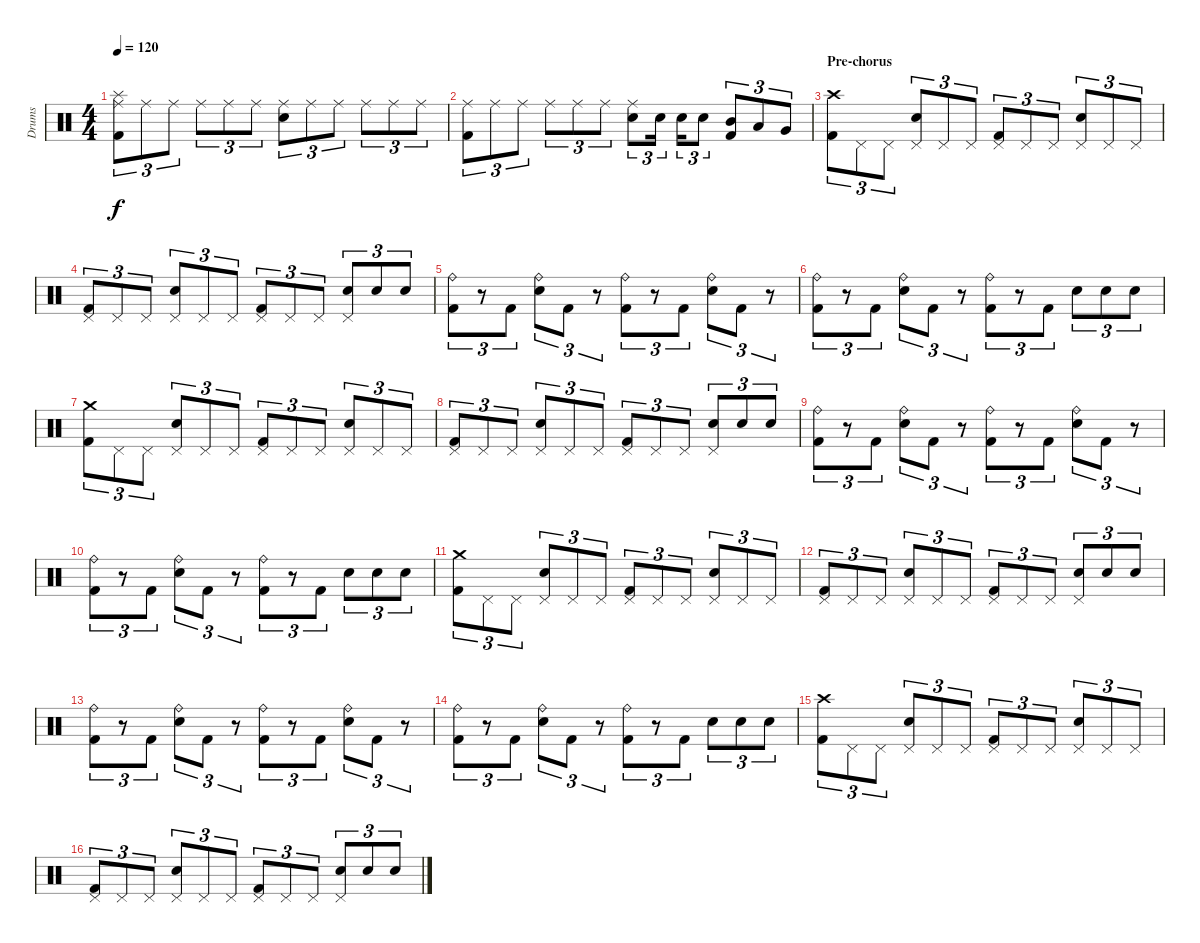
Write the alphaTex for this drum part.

\track ("Drums" "Drums") {instrument percussion}
\staff {score}
\articulation defaults
\ts (4 4)
\tempo 120
\clef neutral
\ks c
("Ride (middle)" "Splash (hit)" "Kick (hit) 2").8{tu (3 2) dy f} "Ride (middle)".8{tu (3 2)} "Ride (middle)".8{tu (3 2)} "Ride (middle)".8{tu (3 2)} "Ride (middle)".8{tu (3 2)} "Ride (middle)".8{tu (3 2)} ("Ride (middle)" "Snare (hit) 2").8{tu (3 2)} "Ride (middle)".8{tu (3 2)} "Ride (middle)".8{tu (3 2)} "Ride (middle)".8{tu (3 2)} "Ride (middle)".8{tu (3 2)} "Ride (middle)".8{tu (3 2)} |
("Ride (middle)" "Kick (hit) 2").8{tu (3 2)} "Ride (middle)".8{tu (3 2)} "Ride (middle)".8{tu (3 2)} "Ride (middle)".8{tu (3 2)} "Ride (middle)".8{tu (3 2)} "Ride (middle)".8{tu (3 2)} ("Ride (middle)" "Snare (hit) 2").8{tu (3 2)} "Snare (hit) 2".16{tu (3 2)} "Snare (hit) 2".16{tu (3 2)} "Snare (hit) 2".8{tu (3 2)} ("Mid Tom (hit)" "Kick (hit) 2").8{tu (3 2)} "Low Tom (hit)".8{tu (3 2)} "Very Low Tom (hit)".8{tu (3 2)} |
\section ("" "Pre-chorus")
("Crash high (hit)" "Kick (hit) 2").8{tu (3 2)} "Pedal Hi-Hat (hit)".8{tu (3 2)} "Pedal Hi-Hat (hit)".8{tu (3 2)} ("Pedal Hi-Hat (hit)" "Snare (hit) 2").8{tu (3 2)} "Pedal Hi-Hat (hit)".8{tu (3 2)} "Pedal Hi-Hat (hit)".8{tu (3 2)} ("Pedal Hi-Hat (hit)" "Kick (hit) 2").8{tu (3 2)} "Pedal Hi-Hat (hit)".8{tu (3 2)} "Pedal Hi-Hat (hit)".8{tu (3 2)} ("Pedal Hi-Hat (hit)" "Snare (hit) 2").8{tu (3 2)} "Pedal Hi-Hat (hit)".8{tu (3 2)} "Pedal Hi-Hat (hit)".8{tu (3 2)} |
("Pedal Hi-Hat (hit)" "Kick (hit) 2").8{tu (3 2)} "Pedal Hi-Hat (hit)".8{tu (3 2)} "Pedal Hi-Hat (hit)".8{tu (3 2)} ("Pedal Hi-Hat (hit)" "Snare (hit) 2").8{tu (3 2)} "Pedal Hi-Hat (hit)".8{tu (3 2)} "Pedal Hi-Hat (hit)".8{tu (3 2)} ("Pedal Hi-Hat (hit)" "Kick (hit) 2").8{tu (3 2)} "Pedal Hi-Hat (hit)".8{tu (3 2)} "Pedal Hi-Hat (hit)".8{tu (3 2)} ("Pedal Hi-Hat (hit)" "Snare (hit) 2").8{tu (3 2)} "Snare (hit) 2".8{tu (3 2)} "Snare (hit) 2".8{tu (3 2)} |
("Ride (bell)" "Kick (hit) 2").8{tu (3 2)} r.8{tu (3 2)} "Kick (hit) 2".8{tu (3 2)} ("Ride (bell)" "Snare (hit) 2").8{tu (3 2)} "Kick (hit) 2".8{tu (3 2)} r.8{tu (3 2)} ("Ride (bell)" "Kick (hit) 2").8{tu (3 2)} r.8{tu (3 2)} "Kick (hit) 2".8{tu (3 2)} ("Ride (bell)" "Snare (hit) 2").8{tu (3 2)} "Kick (hit) 2".8{tu (3 2)} r.8{tu (3 2)} |
("Ride (bell)" "Kick (hit) 2").8{tu (3 2)} r.8{tu (3 2)} "Kick (hit) 2".8{tu (3 2)} ("Ride (bell)" "Snare (hit) 2").8{tu (3 2)} "Kick (hit) 2".8{tu (3 2)} r.8{tu (3 2)} ("Ride (bell)" "Kick (hit) 2").8{tu (3 2)} r.8{tu (3 2)} "Kick (hit) 2".8{tu (3 2)} "Snare (hit) 2".8{tu (3 2)} "Snare (hit) 2".8{tu (3 2)} "Snare (hit) 2".8{tu (3 2)} |
("Crash medium (hit)" "Kick (hit) 2").8{tu (3 2)} "Pedal Hi-Hat (hit)".8{tu (3 2)} "Pedal Hi-Hat (hit)".8{tu (3 2)} ("Pedal Hi-Hat (hit)" "Snare (hit) 2").8{tu (3 2)} "Pedal Hi-Hat (hit)".8{tu (3 2)} "Pedal Hi-Hat (hit)".8{tu (3 2)} ("Pedal Hi-Hat (hit)" "Kick (hit) 2").8{tu (3 2)} "Pedal Hi-Hat (hit)".8{tu (3 2)} "Pedal Hi-Hat (hit)".8{tu (3 2)} ("Pedal Hi-Hat (hit)" "Snare (hit) 2").8{tu (3 2)} "Pedal Hi-Hat (hit)".8{tu (3 2)} "Pedal Hi-Hat (hit)".8{tu (3 2)} |
("Pedal Hi-Hat (hit)" "Kick (hit) 2").8{tu (3 2)} "Pedal Hi-Hat (hit)".8{tu (3 2)} "Pedal Hi-Hat (hit)".8{tu (3 2)} ("Pedal Hi-Hat (hit)" "Snare (hit) 2").8{tu (3 2)} "Pedal Hi-Hat (hit)".8{tu (3 2)} "Pedal Hi-Hat (hit)".8{tu (3 2)} ("Pedal Hi-Hat (hit)" "Kick (hit) 2").8{tu (3 2)} "Pedal Hi-Hat (hit)".8{tu (3 2)} "Pedal Hi-Hat (hit)".8{tu (3 2)} ("Pedal Hi-Hat (hit)" "Snare (hit) 2").8{tu (3 2)} "Snare (hit) 2".8{tu (3 2)} "Snare (hit) 2".8{tu (3 2)} |
("Ride (bell)" "Kick (hit) 2").8{tu (3 2)} r.8{tu (3 2)} "Kick (hit) 2".8{tu (3 2)} ("Ride (bell)" "Snare (hit) 2").8{tu (3 2)} "Kick (hit) 2".8{tu (3 2)} r.8{tu (3 2)} ("Ride (bell)" "Kick (hit) 2").8{tu (3 2)} r.8{tu (3 2)} "Kick (hit) 2".8{tu (3 2)} ("Ride (bell)" "Snare (hit) 2").8{tu (3 2)} "Kick (hit) 2".8{tu (3 2)} r.8{tu (3 2)} |
("Ride (bell)" "Kick (hit) 2").8{tu (3 2)} r.8{tu (3 2)} "Kick (hit) 2".8{tu (3 2)} ("Ride (bell)" "Snare (hit) 2").8{tu (3 2)} "Kick (hit) 2".8{tu (3 2)} r.8{tu (3 2)} ("Ride (bell)" "Kick (hit) 2").8{tu (3 2)} r.8{tu (3 2)} "Kick (hit) 2".8{tu (3 2)} "Snare (hit) 2".8{tu (3 2)} "Snare (hit) 2".8{tu (3 2)} "Snare (hit) 2".8{tu (3 2)} |
("Crash medium (hit)" "Kick (hit) 2").8{tu (3 2)} "Pedal Hi-Hat (hit)".8{tu (3 2)} "Pedal Hi-Hat (hit)".8{tu (3 2)} ("Pedal Hi-Hat (hit)" "Snare (hit) 2").8{tu (3 2)} "Pedal Hi-Hat (hit)".8{tu (3 2)} "Pedal Hi-Hat (hit)".8{tu (3 2)} ("Pedal Hi-Hat (hit)" "Kick (hit) 2").8{tu (3 2)} "Pedal Hi-Hat (hit)".8{tu (3 2)} "Pedal Hi-Hat (hit)".8{tu (3 2)} ("Pedal Hi-Hat (hit)" "Snare (hit) 2").8{tu (3 2)} "Pedal Hi-Hat (hit)".8{tu (3 2)} "Pedal Hi-Hat (hit)".8{tu (3 2)} |
("Pedal Hi-Hat (hit)" "Kick (hit) 2").8{tu (3 2)} "Pedal Hi-Hat (hit)".8{tu (3 2)} "Pedal Hi-Hat (hit)".8{tu (3 2)} ("Pedal Hi-Hat (hit)" "Snare (hit) 2").8{tu (3 2)} "Pedal Hi-Hat (hit)".8{tu (3 2)} "Pedal Hi-Hat (hit)".8{tu (3 2)} ("Pedal Hi-Hat (hit)" "Kick (hit) 2").8{tu (3 2)} "Pedal Hi-Hat (hit)".8{tu (3 2)} "Pedal Hi-Hat (hit)".8{tu (3 2)} ("Pedal Hi-Hat (hit)" "Snare (hit) 2").8{tu (3 2)} "Snare (hit) 2".8{tu (3 2)} "Snare (hit) 2".8{tu (3 2)} |
("Ride (bell)" "Kick (hit) 2").8{tu (3 2)} r.8{tu (3 2)} "Kick (hit) 2".8{tu (3 2)} ("Ride (bell)" "Snare (hit) 2").8{tu (3 2)} "Kick (hit) 2".8{tu (3 2)} r.8{tu (3 2)} ("Ride (bell)" "Kick (hit) 2").8{tu (3 2)} r.8{tu (3 2)} "Kick (hit) 2".8{tu (3 2)} ("Ride (bell)" "Snare (hit) 2").8{tu (3 2)} "Kick (hit) 2".8{tu (3 2)} r.8{tu (3 2)} |
("Ride (bell)" "Kick (hit) 2").8{tu (3 2)} r.8{tu (3 2)} "Kick (hit) 2".8{tu (3 2)} ("Ride (bell)" "Snare (hit) 2").8{tu (3 2)} "Kick (hit) 2".8{tu (3 2)} r.8{tu (3 2)} ("Ride (bell)" "Kick (hit) 2").8{tu (3 2)} r.8{tu (3 2)} "Kick (hit) 2".8{tu (3 2)} "Snare (hit) 2".8{tu (3 2)} "Snare (hit) 2".8{tu (3 2)} "Snare (hit) 2".8{tu (3 2)} |
("Crash high (hit)" "Kick (hit) 2").8{tu (3 2)} "Pedal Hi-Hat (hit)".8{tu (3 2)} "Pedal Hi-Hat (hit)".8{tu (3 2)} ("Pedal Hi-Hat (hit)" "Snare (hit) 2").8{tu (3 2)} "Pedal Hi-Hat (hit)".8{tu (3 2)} "Pedal Hi-Hat (hit)".8{tu (3 2)} ("Pedal Hi-Hat (hit)" "Kick (hit) 2").8{tu (3 2)} "Pedal Hi-Hat (hit)".8{tu (3 2)} "Pedal Hi-Hat (hit)".8{tu (3 2)} ("Pedal Hi-Hat (hit)" "Snare (hit) 2").8{tu (3 2)} "Pedal Hi-Hat (hit)".8{tu (3 2)} "Pedal Hi-Hat (hit)".8{tu (3 2)} |
("Pedal Hi-Hat (hit)" "Kick (hit) 2").8{tu (3 2)} "Pedal Hi-Hat (hit)".8{tu (3 2)} "Pedal Hi-Hat (hit)".8{tu (3 2)} ("Pedal Hi-Hat (hit)" "Snare (hit) 2").8{tu (3 2)} "Pedal Hi-Hat (hit)".8{tu (3 2)} "Pedal Hi-Hat (hit)".8{tu (3 2)} ("Pedal Hi-Hat (hit)" "Kick (hit) 2").8{tu (3 2)} "Pedal Hi-Hat (hit)".8{tu (3 2)} "Pedal Hi-Hat (hit)".8{tu (3 2)} ("Pedal Hi-Hat (hit)" "Snare (hit) 2").8{tu (3 2)} "Snare (hit) 2".8{tu (3 2)} "Snare (hit) 2".8{tu (3 2)}
